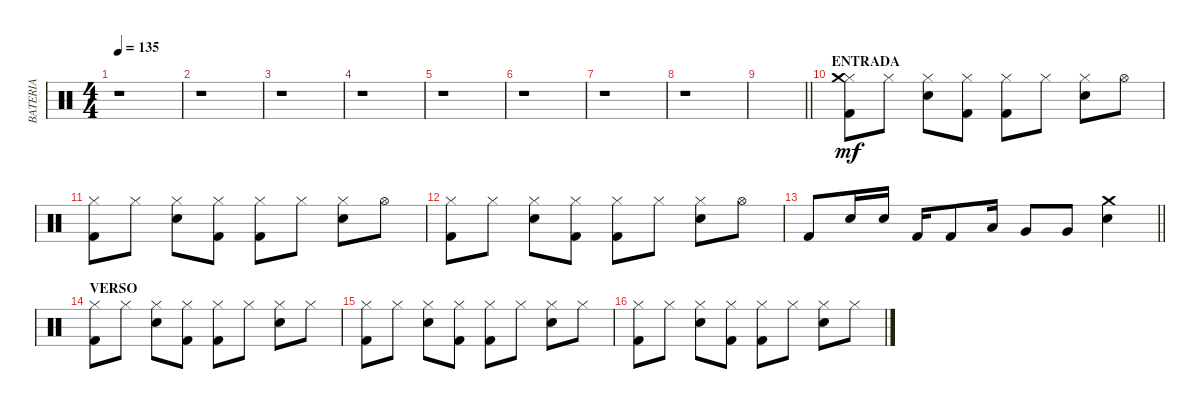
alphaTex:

\track ("BATERIA" "BATERIA") {instrument percussion}
\staff {score}
\articulation defaults
\ts (4 4)
\tempo 135
\clef neutral
\ks c
r.1{dy mf} |
r.1 |
r.1 |
r.1 |
r.1 |
r.1 |
r.1 |
r.1 |
\barLineRight lightlight
|
\section ("" "ENTRADA")
("Hi-Hat (closed)" "Kick (hit) 2" "Crash medium (hit)").8 "Hi-Hat (closed)".8 ("Hi-Hat (closed)" "Electric Snare (hit)").8 ("Hi-Hat (closed)" "Kick (hit) 2").8 ("Hi-Hat (closed)" "Kick (hit) 2").8 "Hi-Hat (closed)".8 ("Hi-Hat (closed)" "Electric Snare (hit)").8 "Hi-Hat (open)".8 |
("Hi-Hat (closed)" "Kick (hit) 2").8 "Hi-Hat (closed)".8 ("Hi-Hat (closed)" "Electric Snare (hit)").8 ("Hi-Hat (closed)" "Kick (hit) 2").8 ("Hi-Hat (closed)" "Kick (hit) 2").8 "Hi-Hat (closed)".8 ("Hi-Hat (closed)" "Electric Snare (hit)").8 "Hi-Hat (open)".8 |
("Hi-Hat (closed)" "Kick (hit) 2").8 "Hi-Hat (closed)".8 ("Hi-Hat (closed)" "Electric Snare (hit)").8 ("Hi-Hat (closed)" "Kick (hit) 2").8 ("Hi-Hat (closed)" "Kick (hit) 2").8 "Hi-Hat (closed)".8 ("Hi-Hat (closed)" "Electric Snare (hit)").8 "Hi-Hat (open)".8 |
\barLineRight lightlight "Kick (hit) 2".8 "Electric Snare (hit)".16 "Electric Snare (hit)".16 "Kick (hit) 2".16 "Kick (hit) 2".8 "Low Tom (hit)".16 "Very Low Tom (hit)".8 "Very Low Tom (hit)".8
("Electric Snare (hit)" "Crash medium (hit)").4 |
\section ("" "VERSO")
("Hi-Hat (closed)" "Kick (hit) 2").8 "Hi-Hat (closed)".8 ("Hi-Hat (closed)" "Electric Snare (hit)").8 ("Hi-Hat (closed)" "Kick (hit) 2").8 ("Hi-Hat (closed)" "Kick (hit) 2").8 "Hi-Hat (closed)".8 ("Hi-Hat (closed)" "Electric Snare (hit)").8 "Hi-Hat (closed)".8 |
("Hi-Hat (closed)" "Kick (hit) 2").8 "Hi-Hat (closed)".8 ("Hi-Hat (closed)" "Electric Snare (hit)").8 ("Hi-Hat (closed)" "Kick (hit) 2").8 ("Hi-Hat (closed)" "Kick (hit) 2").8 "Hi-Hat (closed)".8 ("Hi-Hat (closed)" "Electric Snare (hit)").8 "Hi-Hat (closed)".8 |
("Hi-Hat (closed)" "Kick (hit) 2").8 "Hi-Hat (closed)".8 ("Hi-Hat (closed)" "Electric Snare (hit)").8 ("Hi-Hat (closed)" "Kick (hit) 2").8 ("Hi-Hat (closed)" "Kick (hit) 2").8 "Hi-Hat (closed)".8 ("Hi-Hat (closed)" "Electric Snare (hit)").8 "Hi-Hat (closed)".8
